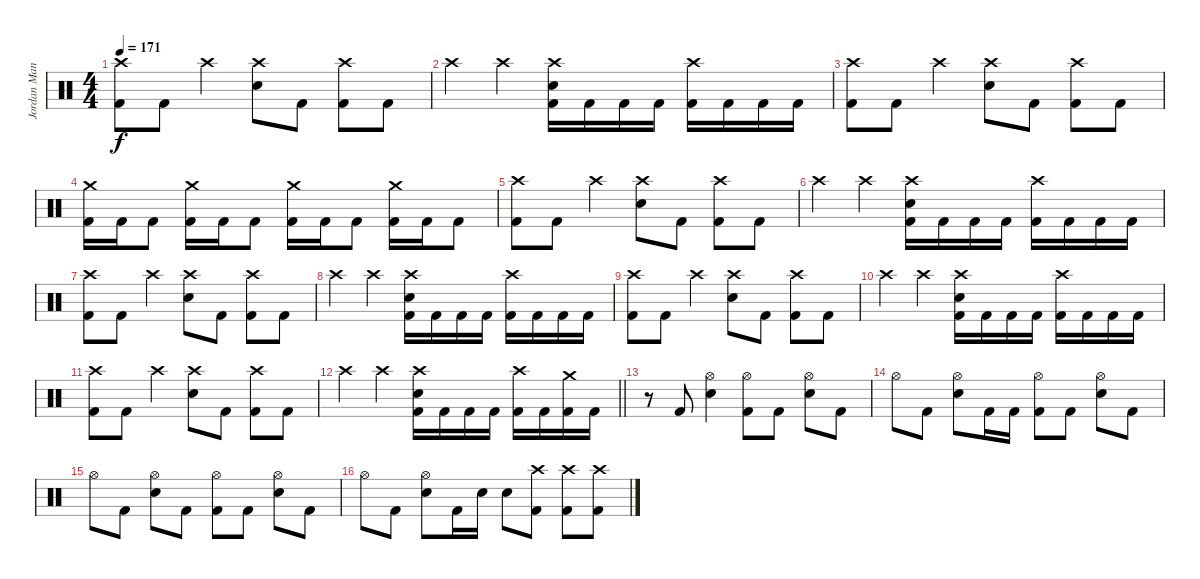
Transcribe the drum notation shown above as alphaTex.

\track ("Jordan Mancino" "Jordan Man") {instrument percussion}
\staff {score}
\articulation defaults
\ts (4 4)
\tempo 171
\clef neutral
\ks c
("Crash high (hit)" "Kick (hit) 2").8{dy f} "Kick (hit) 2".8 "Crash high (hit)".4 ("Crash high (hit)" "Electric Snare (hit)").8 "Kick (hit) 2".8 ("Crash high (hit)" "Kick (hit) 2").8 "Kick (hit) 2".8 |
"Crash high (hit)".4 "Crash high (hit)".4 ("Crash high (hit)" "Electric Snare (hit)" "Kick (hit) 2").16 "Kick (hit) 2".16 "Kick (hit) 2".16 "Kick (hit) 2".16 ("Crash high (hit)" "Kick (hit) 2").16 "Kick (hit) 2".16 "Kick (hit) 2".16 "Kick (hit) 2".16 |
("Crash high (hit)" "Kick (hit) 2").8 "Kick (hit) 2".8 "Crash high (hit)".4 ("Crash high (hit)" "Electric Snare (hit)").8 "Kick (hit) 2".8 ("Crash high (hit)" "Kick (hit) 2").8 "Kick (hit) 2".8 |
("Crash medium (hit)" "Kick (hit) 2").16 "Kick (hit) 2".16 "Kick (hit) 2".8 ("Crash medium (hit)" "Kick (hit) 2").16 "Kick (hit) 2".16 "Kick (hit) 2".8 ("Crash medium (hit)" "Kick (hit) 2").16 "Kick (hit) 2".16 "Kick (hit) 2".8 ("Crash medium (hit)" "Kick (hit) 2").16 "Kick (hit) 2".16 "Kick (hit) 2".8 |
("Crash high (hit)" "Kick (hit) 2").8 "Kick (hit) 2".8 "Crash high (hit)".4 ("Crash high (hit)" "Electric Snare (hit)").8 "Kick (hit) 2".8 ("Crash high (hit)" "Kick (hit) 2").8 "Kick (hit) 2".8 |
"Crash high (hit)".4 "Crash high (hit)".4 ("Crash high (hit)" "Electric Snare (hit)" "Kick (hit) 2").16 "Kick (hit) 2".16 "Kick (hit) 2".16 "Kick (hit) 2".16 ("Crash high (hit)" "Kick (hit) 2").16 "Kick (hit) 2".16 "Kick (hit) 2".16 "Kick (hit) 2".16 |
("Crash high (hit)" "Kick (hit) 2").8 "Kick (hit) 2".8 "Crash high (hit)".4 ("Crash high (hit)" "Electric Snare (hit)").8 "Kick (hit) 2".8 ("Crash high (hit)" "Kick (hit) 2").8 "Kick (hit) 2".8 |
"Crash high (hit)".4 "Crash high (hit)".4 ("Crash high (hit)" "Electric Snare (hit)" "Kick (hit) 2").16 "Kick (hit) 2".16 "Kick (hit) 2".16 "Kick (hit) 2".16 ("Crash high (hit)" "Kick (hit) 2").16 "Kick (hit) 2".16 "Kick (hit) 2".16 "Kick (hit) 2".16 |
("Crash high (hit)" "Kick (hit) 2").8 "Kick (hit) 2".8 "Crash high (hit)".4 ("Crash high (hit)" "Electric Snare (hit)").8 "Kick (hit) 2".8 ("Crash high (hit)" "Kick (hit) 2").8 "Kick (hit) 2".8 |
"Crash high (hit)".4 "Crash high (hit)".4 ("Crash high (hit)" "Electric Snare (hit)" "Kick (hit) 2").16 "Kick (hit) 2".16 "Kick (hit) 2".16 "Kick (hit) 2".16 ("Crash high (hit)" "Kick (hit) 2").16 "Kick (hit) 2".16 "Kick (hit) 2".16 "Kick (hit) 2".16 |
("Crash high (hit)" "Kick (hit) 2").8 "Kick (hit) 2".8 "Crash high (hit)".4 ("Crash high (hit)" "Electric Snare (hit)").8 "Kick (hit) 2".8 ("Crash high (hit)" "Kick (hit) 2").8 "Kick (hit) 2".8 |
\barLineRight lightlight "Crash high (hit)".4 "Crash high (hit)".4
("Crash high (hit)" "Electric Snare (hit)" "Kick (hit) 2").16 "Kick (hit) 2".16 "Kick (hit) 2".16 "Kick (hit) 2".16 ("Crash high (hit)" "Kick (hit) 2").16 "Kick (hit) 2".16 ("Crash medium (hit)" "Kick (hit) 2").16 "Kick (hit) 2".16 |
\section ("" "")
r.8 "Kick (hit) 2".8 ("Hi-Hat (open)" "Electric Snare (hit)").4 ("Hi-Hat (open)" "Kick (hit) 2").8 "Kick (hit) 2".8 ("Hi-Hat (open)" "Electric Snare (hit)").8 "Kick (hit) 2".8 |
"Hi-Hat (open)".8 "Kick (hit) 2".8 ("Hi-Hat (open)" "Electric Snare (hit)").8 "Kick (hit) 2".16 "Kick (hit) 2".16 ("Hi-Hat (open)" "Kick (hit) 2").8 "Kick (hit) 2".8 ("Hi-Hat (open)" "Electric Snare (hit)").8 "Kick (hit) 2".8 |
"Hi-Hat (open)".8 "Kick (hit) 2".8 ("Hi-Hat (open)" "Electric Snare (hit)").8 "Kick (hit) 2".8 ("Hi-Hat (open)" "Kick (hit) 2").8 "Kick (hit) 2".8 ("Hi-Hat (open)" "Electric Snare (hit)").8 "Kick (hit) 2".8 |
"Hi-Hat (open)".8 "Kick (hit) 2".8 ("Hi-Hat (open)" "Electric Snare (hit)").8 "Kick (hit) 2".16 "Electric Snare (hit)".16 "Electric Snare (hit)".8 ("Crash high (hit)" "Kick (hit) 2").8 ("Crash high (hit)" "Kick (hit) 2").8 ("Crash high (hit)" "Kick (hit) 2").8
